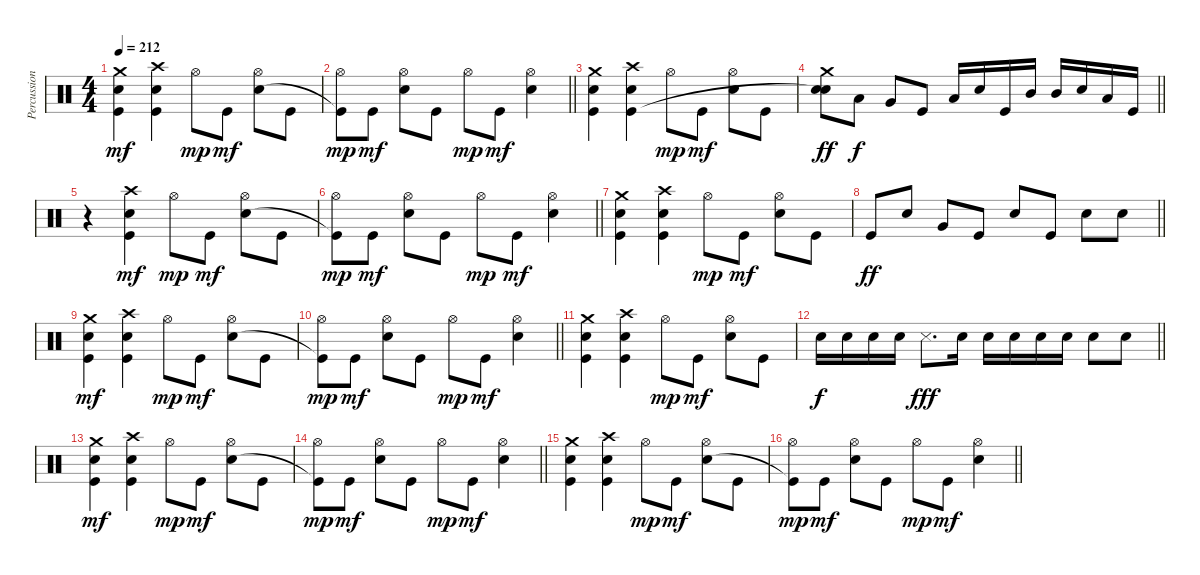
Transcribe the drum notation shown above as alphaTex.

\track ("Percussion" "Percussion") {instrument percussion}
\staff {score}
\articulation defaults
\ts (4 4)
\tempo 212
\clef neutral
\ks c
("Crash medium (hit)" "Snare (hit) 2" "Kick (hit)").4{dy mf} ("Crash high (hit)" "Snare (hit) 2" "Kick (hit)").4 "Hi-Hat (open)".8{dy mp} "Kick (hit)".8{dy mf} ("Hi-Hat (open)" "Snare (hit) 2").8 "Kick (hit)".8 |
\barLineRight lightlight
("Hi-Hat (open)" "Kick (hit)"{t}).8{dy mp} "Kick (hit)".8{dy mf} ("Hi-Hat (open)" "Snare (hit) 2").8 "Kick (hit)".8 "Hi-Hat (open)".8{dy mp} "Kick (hit)".8{dy mf} ("Hi-Hat (open)" "Snare (hit) 2").4 |
("Crash medium (hit)" "Snare (hit) 2" "Kick (hit)").4 ("Crash high (hit)" "Snare (hit) 2" "Kick (hit)").4 "Hi-Hat (open)".8{dy mp} "Kick (hit)".8{dy mf} ("Hi-Hat (open)" "Snare (hit) 2").8 "Kick (hit)".8 |
\barLineRight lightlight
("Crash medium (hit)" "Snare (hit) 2" "Snare (hit)"{t}).8{dy ff} "Low Tom (hit)".8{dy f} "Very Low Tom (hit)".8 "Kick (hit)".8 "Low Tom (hit)".16 "Snare (hit) 2".16 "Kick (hit)".16 "Mid Tom (hit)".16 "Mid Tom (hit)".16 "Snare (hit) 2".16 "Low Floor Tom (hit)".16 "Kick (hit)".16 |
r.4 ("Crash high (hit)" "Snare (hit) 2" "Kick (hit)").4{dy mf} "Hi-Hat (open)".8{dy mp} "Kick (hit)".8{dy mf} ("Hi-Hat (open)" "Snare (hit) 2").8 "Kick (hit)".8 |
\barLineRight lightlight
("Hi-Hat (open)" "Kick (hit)"{t}).8{dy mp} "Kick (hit)".8{dy mf} ("Hi-Hat (open)" "Snare (hit) 2").8 "Kick (hit)".8 "Hi-Hat (open)".8{dy mp} "Kick (hit)".8{dy mf} ("Hi-Hat (open)" "Snare (hit) 2").4 |
("Crash medium (hit)" "Snare (hit) 2" "Kick (hit)").4 ("Crash high (hit)" "Snare (hit) 2" "Kick (hit)").4 "Hi-Hat (open)".8{dy mp} "Kick (hit)".8{dy mf} ("Hi-Hat (open)" "Snare (hit) 2").8 "Kick (hit)".8 |
\barLineRight lightlight "Kick (hit)".8{dy ff} "Snare (hit) 2".8 "Very Low Tom (hit)".8 "Kick (hit)".8 "Snare (hit) 2".8 "Kick (hit)".8 "Snare (hit) 2".8 "Snare (hit) 2".8
|
("Crash medium (hit)" "Snare (hit) 2" "Kick (hit)").4{dy mf} ("Crash high (hit)" "Snare (hit) 2" "Kick (hit)").4 "Hi-Hat (open)".8{dy mp} "Kick (hit)".8{dy mf} ("Hi-Hat (open)" "Snare (hit) 2").8 "Kick (hit)".8 |
\barLineRight lightlight
("Hi-Hat (open)" "Kick (hit)"{t}).8{dy mp} "Kick (hit)".8{dy mf} ("Hi-Hat (open)" "Snare (hit) 2").8 "Kick (hit)".8 "Hi-Hat (open)".8{dy mp} "Kick (hit)".8{dy mf} ("Hi-Hat (open)" "Snare (hit) 2").4 |
("Crash medium (hit)" "Snare (hit) 2" "Kick (hit)").4 ("Crash high (hit)" "Snare (hit) 2" "Kick (hit)").4 "Hi-Hat (open)".8{dy mp} "Kick (hit)".8{dy mf} ("Hi-Hat (open)" "Snare (hit) 2").8 "Kick (hit)".8 |
\barLineRight lightlight "Snare (hit) 2".16{dy f} "Snare (hit) 2".16 "Snare (hit) 2".16 "Snare (hit) 2".16 "Snare (side stick) 3".8{d dy fff} "Snare (hit) 2".16 "Snare (hit) 2".16 "Snare (hit) 2".16 "Snare (hit) 2".16 "Snare (hit) 2".16 "Snare (hit) 2".8 "Snare (hit) 2".8
|
("Crash medium (hit)" "Snare (hit) 2" "Kick (hit)").4{dy mf} ("Crash high (hit)" "Snare (hit) 2" "Kick (hit)").4 "Hi-Hat (open)".8{dy mp} "Kick (hit)".8{dy mf} ("Hi-Hat (open)" "Snare (hit) 2").8 "Kick (hit)".8 |
\barLineRight lightlight
("Hi-Hat (open)" "Kick (hit)"{t}).8{dy mp} "Kick (hit)".8{dy mf} ("Hi-Hat (open)" "Snare (hit) 2").8 "Kick (hit)".8 "Hi-Hat (open)".8{dy mp} "Kick (hit)".8{dy mf} ("Hi-Hat (open)" "Snare (hit) 2").4 |
("Crash medium (hit)" "Snare (hit) 2" "Kick (hit)").4 ("Crash high (hit)" "Snare (hit) 2" "Kick (hit)").4 "Hi-Hat (open)".8{dy mp} "Kick (hit)".8{dy mf} ("Hi-Hat (open)" "Snare (hit) 2").8 "Kick (hit)".8 |
\barLineRight lightlight
("Hi-Hat (open)" "Kick (hit)"{t}).8{dy mp} "Kick (hit)".8{dy mf} ("Hi-Hat (open)" "Snare (hit) 2").8 "Kick (hit)".8 "Hi-Hat (open)".8{dy mp} "Kick (hit)".8{dy mf} ("Hi-Hat (open)" "Snare (hit) 2").4
